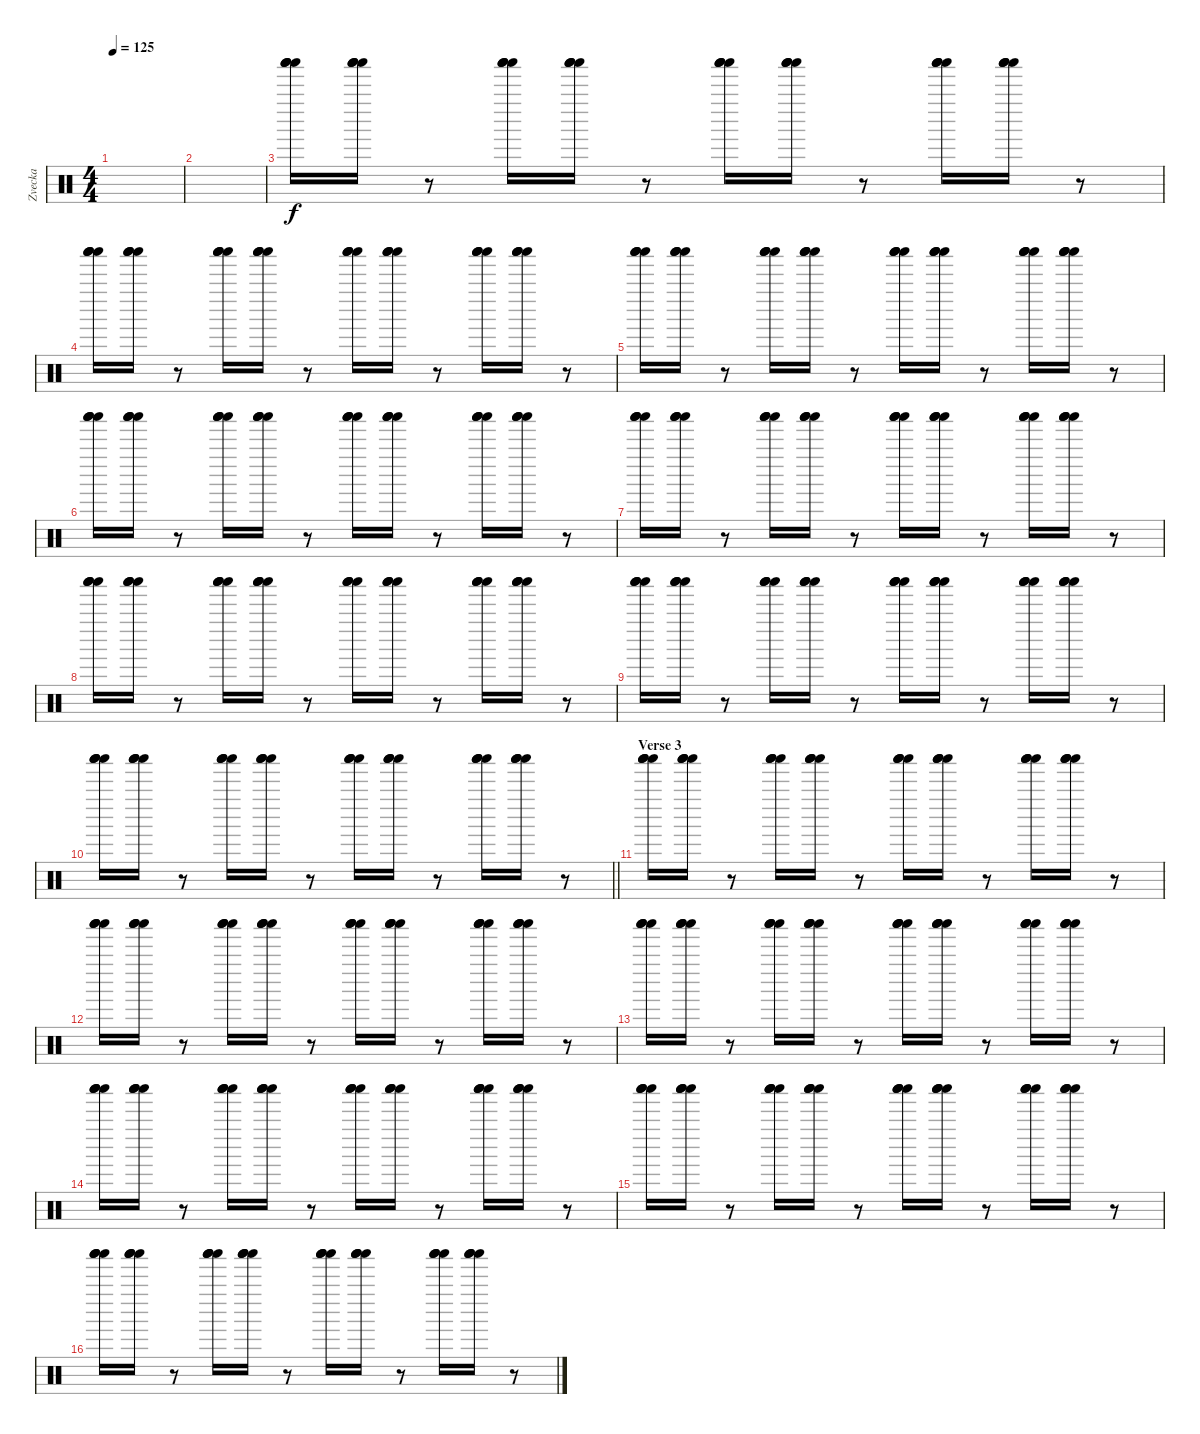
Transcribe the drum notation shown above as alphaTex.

\track ("Zvecka " "Zvecka ") {instrument percussion}
\staff {score}
\articulation defaults
\ts (4 4)
\tempo 125
\clef neutral
\ks c
|
|
("Shaker (hit)" "Shaker (hit)" "Shaker (hit)" "Shaker (hit)").16 ("Shaker (hit)" "Shaker (hit)" "Shaker (hit)" "Shaker (hit)").16 r.8 ("Shaker (hit)" "Shaker (hit)" "Shaker (hit)" "Shaker (hit)").16 ("Shaker (hit)" "Shaker (hit)" "Shaker (hit)" "Shaker (hit)").16 r.8 ("Shaker (hit)" "Shaker (hit)" "Shaker (hit)" "Shaker (hit)").16 ("Shaker (hit)" "Shaker (hit)" "Shaker (hit)" "Shaker (hit)").16 r.8 ("Shaker (hit)" "Shaker (hit)" "Shaker (hit)" "Shaker (hit)").16 ("Shaker (hit)" "Shaker (hit)" "Shaker (hit)" "Shaker (hit)").16 r.8 |
("Shaker (hit)" "Shaker (hit)" "Shaker (hit)" "Shaker (hit)").16 ("Shaker (hit)" "Shaker (hit)" "Shaker (hit)" "Shaker (hit)").16 r.8 ("Shaker (hit)" "Shaker (hit)" "Shaker (hit)" "Shaker (hit)").16 ("Shaker (hit)" "Shaker (hit)" "Shaker (hit)" "Shaker (hit)").16 r.8 ("Shaker (hit)" "Shaker (hit)" "Shaker (hit)" "Shaker (hit)").16 ("Shaker (hit)" "Shaker (hit)" "Shaker (hit)" "Shaker (hit)").16 r.8 ("Shaker (hit)" "Shaker (hit)" "Shaker (hit)" "Shaker (hit)").16 ("Shaker (hit)" "Shaker (hit)" "Shaker (hit)" "Shaker (hit)").16 r.8 |
("Shaker (hit)" "Shaker (hit)" "Shaker (hit)" "Shaker (hit)").16 ("Shaker (hit)" "Shaker (hit)" "Shaker (hit)" "Shaker (hit)").16 r.8 ("Shaker (hit)" "Shaker (hit)" "Shaker (hit)" "Shaker (hit)").16 ("Shaker (hit)" "Shaker (hit)" "Shaker (hit)" "Shaker (hit)").16 r.8 ("Shaker (hit)" "Shaker (hit)" "Shaker (hit)" "Shaker (hit)").16 ("Shaker (hit)" "Shaker (hit)" "Shaker (hit)" "Shaker (hit)").16 r.8 ("Shaker (hit)" "Shaker (hit)" "Shaker (hit)" "Shaker (hit)").16 ("Shaker (hit)" "Shaker (hit)" "Shaker (hit)" "Shaker (hit)").16 r.8 |
("Shaker (hit)" "Shaker (hit)" "Shaker (hit)" "Shaker (hit)").16 ("Shaker (hit)" "Shaker (hit)" "Shaker (hit)" "Shaker (hit)").16 r.8 ("Shaker (hit)" "Shaker (hit)" "Shaker (hit)" "Shaker (hit)").16 ("Shaker (hit)" "Shaker (hit)" "Shaker (hit)" "Shaker (hit)").16 r.8 ("Shaker (hit)" "Shaker (hit)" "Shaker (hit)" "Shaker (hit)").16 ("Shaker (hit)" "Shaker (hit)" "Shaker (hit)" "Shaker (hit)").16 r.8 ("Shaker (hit)" "Shaker (hit)" "Shaker (hit)" "Shaker (hit)").16 ("Shaker (hit)" "Shaker (hit)" "Shaker (hit)" "Shaker (hit)").16 r.8 |
("Shaker (hit)" "Shaker (hit)" "Shaker (hit)" "Shaker (hit)").16 ("Shaker (hit)" "Shaker (hit)" "Shaker (hit)" "Shaker (hit)").16 r.8 ("Shaker (hit)" "Shaker (hit)" "Shaker (hit)" "Shaker (hit)").16 ("Shaker (hit)" "Shaker (hit)" "Shaker (hit)" "Shaker (hit)").16 r.8 ("Shaker (hit)" "Shaker (hit)" "Shaker (hit)" "Shaker (hit)").16 ("Shaker (hit)" "Shaker (hit)" "Shaker (hit)" "Shaker (hit)").16 r.8 ("Shaker (hit)" "Shaker (hit)" "Shaker (hit)" "Shaker (hit)").16 ("Shaker (hit)" "Shaker (hit)" "Shaker (hit)" "Shaker (hit)").16 r.8 |
("Shaker (hit)" "Shaker (hit)" "Shaker (hit)" "Shaker (hit)").16 ("Shaker (hit)" "Shaker (hit)" "Shaker (hit)" "Shaker (hit)").16 r.8 ("Shaker (hit)" "Shaker (hit)" "Shaker (hit)" "Shaker (hit)").16 ("Shaker (hit)" "Shaker (hit)" "Shaker (hit)" "Shaker (hit)").16 r.8 ("Shaker (hit)" "Shaker (hit)" "Shaker (hit)" "Shaker (hit)").16 ("Shaker (hit)" "Shaker (hit)" "Shaker (hit)" "Shaker (hit)").16 r.8 ("Shaker (hit)" "Shaker (hit)" "Shaker (hit)" "Shaker (hit)").16 ("Shaker (hit)" "Shaker (hit)" "Shaker (hit)" "Shaker (hit)").16 r.8 |
("Shaker (hit)" "Shaker (hit)" "Shaker (hit)" "Shaker (hit)").16 ("Shaker (hit)" "Shaker (hit)" "Shaker (hit)" "Shaker (hit)").16 r.8 ("Shaker (hit)" "Shaker (hit)" "Shaker (hit)" "Shaker (hit)").16 ("Shaker (hit)" "Shaker (hit)" "Shaker (hit)" "Shaker (hit)").16 r.8 ("Shaker (hit)" "Shaker (hit)" "Shaker (hit)" "Shaker (hit)").16 ("Shaker (hit)" "Shaker (hit)" "Shaker (hit)" "Shaker (hit)").16 r.8 ("Shaker (hit)" "Shaker (hit)" "Shaker (hit)" "Shaker (hit)").16 ("Shaker (hit)" "Shaker (hit)" "Shaker (hit)" "Shaker (hit)").16 r.8 |
\barLineRight lightlight
("Shaker (hit)" "Shaker (hit)" "Shaker (hit)" "Shaker (hit)").16 ("Shaker (hit)" "Shaker (hit)" "Shaker (hit)" "Shaker (hit)").16 r.8 ("Shaker (hit)" "Shaker (hit)" "Shaker (hit)" "Shaker (hit)").16 ("Shaker (hit)" "Shaker (hit)" "Shaker (hit)" "Shaker (hit)").16 r.8 ("Shaker (hit)" "Shaker (hit)" "Shaker (hit)" "Shaker (hit)").16 ("Shaker (hit)" "Shaker (hit)" "Shaker (hit)" "Shaker (hit)").16 r.8 ("Shaker (hit)" "Shaker (hit)" "Shaker (hit)" "Shaker (hit)").16 ("Shaker (hit)" "Shaker (hit)" "Shaker (hit)" "Shaker (hit)").16 r.8 |
\section ("" "Verse 3")
("Shaker (hit)" "Shaker (hit)" "Shaker (hit)" "Shaker (hit)").16 ("Shaker (hit)" "Shaker (hit)" "Shaker (hit)" "Shaker (hit)").16 r.8 ("Shaker (hit)" "Shaker (hit)" "Shaker (hit)" "Shaker (hit)").16 ("Shaker (hit)" "Shaker (hit)" "Shaker (hit)" "Shaker (hit)").16 r.8 ("Shaker (hit)" "Shaker (hit)" "Shaker (hit)" "Shaker (hit)").16 ("Shaker (hit)" "Shaker (hit)" "Shaker (hit)" "Shaker (hit)").16 r.8 ("Shaker (hit)" "Shaker (hit)" "Shaker (hit)" "Shaker (hit)").16 ("Shaker (hit)" "Shaker (hit)" "Shaker (hit)" "Shaker (hit)").16 r.8 |
("Shaker (hit)" "Shaker (hit)" "Shaker (hit)" "Shaker (hit)").16 ("Shaker (hit)" "Shaker (hit)" "Shaker (hit)" "Shaker (hit)").16 r.8 ("Shaker (hit)" "Shaker (hit)" "Shaker (hit)" "Shaker (hit)").16 ("Shaker (hit)" "Shaker (hit)" "Shaker (hit)" "Shaker (hit)").16 r.8 ("Shaker (hit)" "Shaker (hit)" "Shaker (hit)" "Shaker (hit)").16 ("Shaker (hit)" "Shaker (hit)" "Shaker (hit)" "Shaker (hit)").16 r.8 ("Shaker (hit)" "Shaker (hit)" "Shaker (hit)" "Shaker (hit)").16 ("Shaker (hit)" "Shaker (hit)" "Shaker (hit)" "Shaker (hit)").16 r.8 |
("Shaker (hit)" "Shaker (hit)" "Shaker (hit)" "Shaker (hit)").16 ("Shaker (hit)" "Shaker (hit)" "Shaker (hit)" "Shaker (hit)").16 r.8 ("Shaker (hit)" "Shaker (hit)" "Shaker (hit)" "Shaker (hit)").16 ("Shaker (hit)" "Shaker (hit)" "Shaker (hit)" "Shaker (hit)").16 r.8 ("Shaker (hit)" "Shaker (hit)" "Shaker (hit)" "Shaker (hit)").16 ("Shaker (hit)" "Shaker (hit)" "Shaker (hit)" "Shaker (hit)").16 r.8 ("Shaker (hit)" "Shaker (hit)" "Shaker (hit)" "Shaker (hit)").16 ("Shaker (hit)" "Shaker (hit)" "Shaker (hit)" "Shaker (hit)").16 r.8 |
("Shaker (hit)" "Shaker (hit)" "Shaker (hit)" "Shaker (hit)").16 ("Shaker (hit)" "Shaker (hit)" "Shaker (hit)" "Shaker (hit)").16 r.8 ("Shaker (hit)" "Shaker (hit)" "Shaker (hit)" "Shaker (hit)").16 ("Shaker (hit)" "Shaker (hit)" "Shaker (hit)" "Shaker (hit)").16 r.8 ("Shaker (hit)" "Shaker (hit)" "Shaker (hit)" "Shaker (hit)").16 ("Shaker (hit)" "Shaker (hit)" "Shaker (hit)" "Shaker (hit)").16 r.8 ("Shaker (hit)" "Shaker (hit)" "Shaker (hit)" "Shaker (hit)").16 ("Shaker (hit)" "Shaker (hit)" "Shaker (hit)" "Shaker (hit)").16 r.8 |
("Shaker (hit)" "Shaker (hit)" "Shaker (hit)" "Shaker (hit)").16 ("Shaker (hit)" "Shaker (hit)" "Shaker (hit)" "Shaker (hit)").16 r.8 ("Shaker (hit)" "Shaker (hit)" "Shaker (hit)" "Shaker (hit)").16 ("Shaker (hit)" "Shaker (hit)" "Shaker (hit)" "Shaker (hit)").16 r.8 ("Shaker (hit)" "Shaker (hit)" "Shaker (hit)" "Shaker (hit)").16 ("Shaker (hit)" "Shaker (hit)" "Shaker (hit)" "Shaker (hit)").16 r.8 ("Shaker (hit)" "Shaker (hit)" "Shaker (hit)" "Shaker (hit)").16 ("Shaker (hit)" "Shaker (hit)" "Shaker (hit)" "Shaker (hit)").16 r.8 |
("Shaker (hit)" "Shaker (hit)" "Shaker (hit)" "Shaker (hit)").16 ("Shaker (hit)" "Shaker (hit)" "Shaker (hit)" "Shaker (hit)").16 r.8 ("Shaker (hit)" "Shaker (hit)" "Shaker (hit)" "Shaker (hit)").16 ("Shaker (hit)" "Shaker (hit)" "Shaker (hit)" "Shaker (hit)").16 r.8 ("Shaker (hit)" "Shaker (hit)" "Shaker (hit)" "Shaker (hit)").16 ("Shaker (hit)" "Shaker (hit)" "Shaker (hit)" "Shaker (hit)").16 r.8 ("Shaker (hit)" "Shaker (hit)" "Shaker (hit)" "Shaker (hit)").16 ("Shaker (hit)" "Shaker (hit)" "Shaker (hit)" "Shaker (hit)").16 r.8
